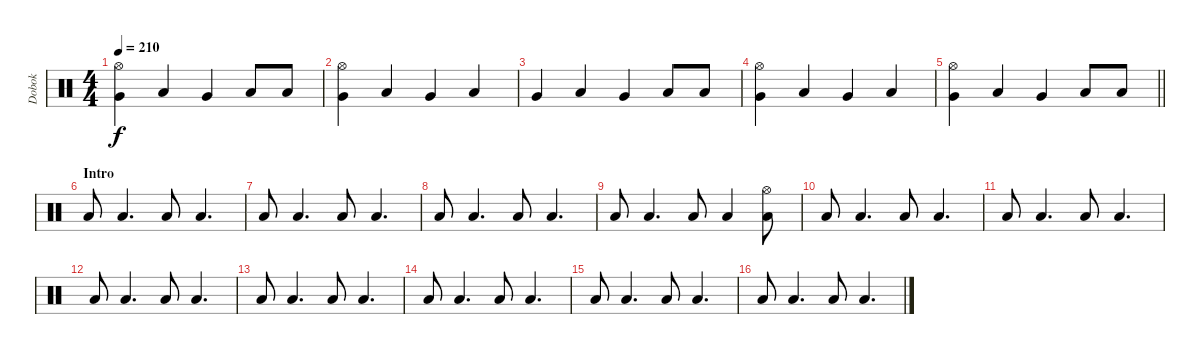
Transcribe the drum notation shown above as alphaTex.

\track ("Dobok" "Dobok") {instrument percussion}
\staff {score}
\articulation defaults
\ts (4 4)
\tempo 210
\clef neutral
\ks c
("Hi-Hat (open)" "Very Low Tom (hit)").4{dy f} "Low Tom (hit)".4 "Very Low Tom (hit)".4 "Low Tom (hit)".8 "Low Tom (hit)".8 |
("Hi-Hat (open)" "Very Low Tom (hit)").4 "Low Tom (hit)".4 "Very Low Tom (hit)".4 "Low Tom (hit)".4 |
"Very Low Tom (hit)".4 "Low Tom (hit)".4 "Very Low Tom (hit)".4 "Low Tom (hit)".8 "Low Tom (hit)".8 |
("Hi-Hat (open)" "Very Low Tom (hit)").4 "Low Tom (hit)".4 "Very Low Tom (hit)".4 "Low Tom (hit)".4 |
\barLineRight lightlight
("Hi-Hat (open)" "Very Low Tom (hit)").4 "Low Tom (hit)".4 "Very Low Tom (hit)".4 "Low Tom (hit)".8 "Low Tom (hit)".8 |
\section ("" "Intro")
"Low Floor Tom (hit)".8 "Low Floor Tom (hit)".4{d} "Low Floor Tom (hit)".8 "Low Floor Tom (hit)".4{d} |
"Low Tom (hit)".8 "Low Tom (hit)".4{d} "Low Tom (hit)".8 "Low Tom (hit)".4{d} |
"Low Floor Tom (hit)".8 "Low Floor Tom (hit)".4{d} "Low Floor Tom (hit)".8 "Low Floor Tom (hit)".4{d} |
"Low Tom (hit)".8 "Low Tom (hit)".4{d} "Low Tom (hit)".8 "Low Tom (hit)".4 ("Hi-Hat (open)" "Low Tom (hit)").8 |
"Low Floor Tom (hit)".8 "Low Floor Tom (hit)".4{d} "Low Floor Tom (hit)".8 "Low Floor Tom (hit)".4{d} |
"Low Tom (hit)".8 "Low Tom (hit)".4{d} "Low Tom (hit)".8 "Low Tom (hit)".4{d} |
"Low Floor Tom (hit)".8 "Low Floor Tom (hit)".4{d} "Low Floor Tom (hit)".8 "Low Floor Tom (hit)".4{d} |
"Low Tom (hit)".8 "Low Tom (hit)".4{d} "Low Tom (hit)".8 "Low Tom (hit)".4{d} |
"Low Floor Tom (hit)".8 "Low Floor Tom (hit)".4{d} "Low Floor Tom (hit)".8 "Low Floor Tom (hit)".4{d} |
"Low Tom (hit)".8 "Low Tom (hit)".4{d} "Low Tom (hit)".8 "Low Tom (hit)".4{d} |
"Low Floor Tom (hit)".8 "Low Floor Tom (hit)".4{d} "Low Floor Tom (hit)".8 "Low Floor Tom (hit)".4{d}
